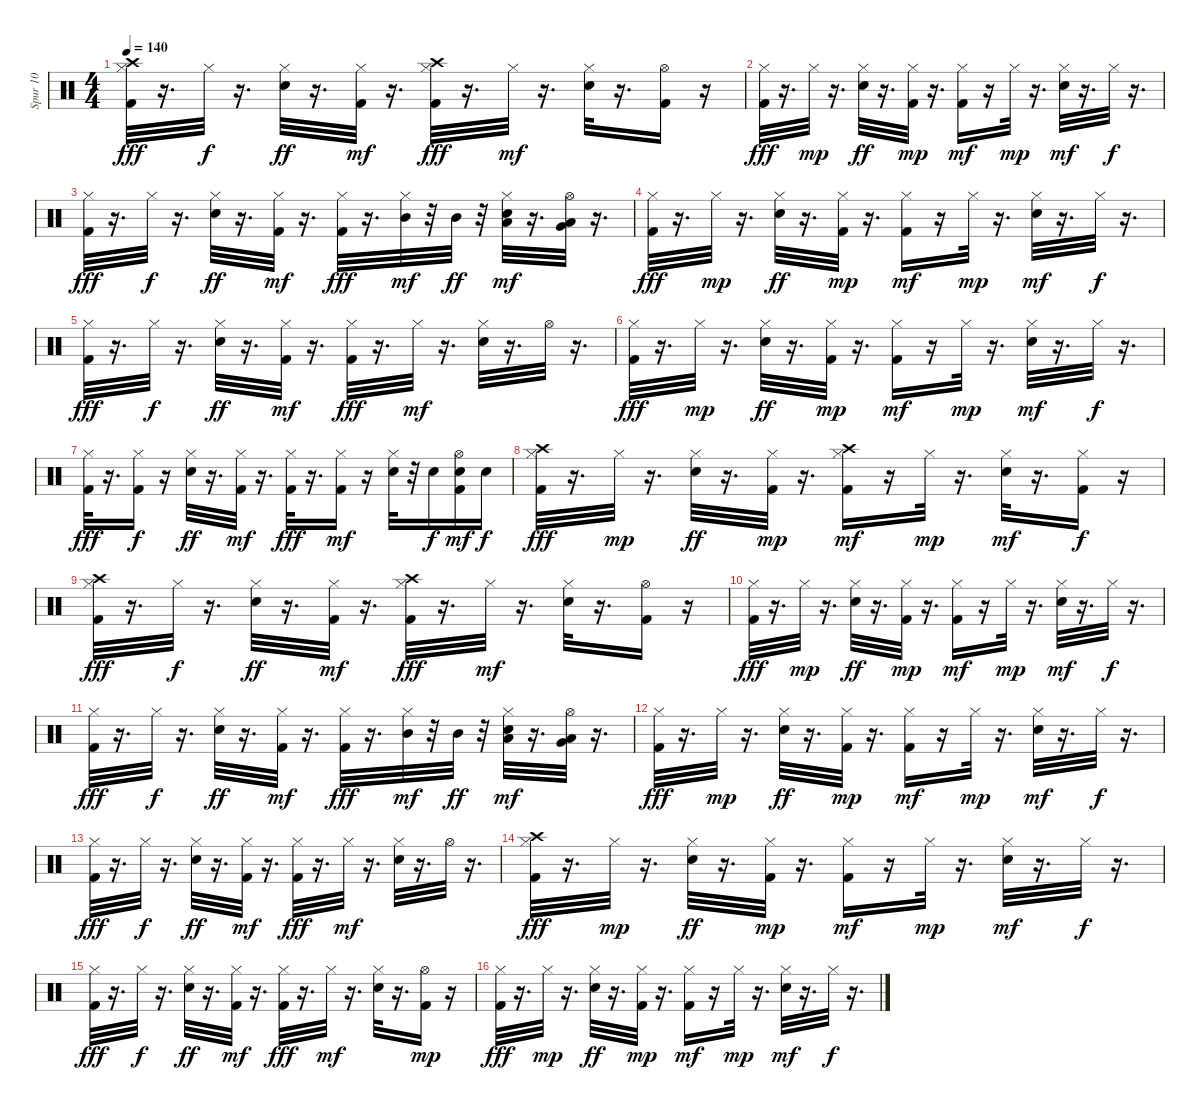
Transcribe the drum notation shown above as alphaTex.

\track ("Spur 10" "Spur 10") {instrument percussion}
\staff {score}
\articulation defaults
\ts (4 4)
\tempo 140
\clef neutral
\ks c
("Crash high (hit)" "Hi-Hat (closed)" "Kick (hit) 2").32{dy fff} r.16{d} "Hi-Hat (closed)".32{dy f} r.16{d} ("Hi-Hat (closed)" "Snare (hit) 2").32{dy ff} r.16{d} ("Kick (hit) 2" "Hi-Hat (closed)").32{dy mf} r.16{d} ("Crash high (hit)" "Hi-Hat (closed)" "Kick (hit) 2").32{dy fff} r.16{d} "Hi-Hat (closed)".32{dy mf} r.16{d} ("Snare (hit) 2" "Hi-Hat (closed)").32 r.16{d} ("Kick (hit) 2" "Hi-Hat (open)").16 r.16 |
("Hi-Hat (closed)" "Kick (hit) 2").32{dy fff} r.16{d} "Hi-Hat (closed)".32{dy mp} r.16{d} ("Hi-Hat (closed)" "Snare (hit) 2").32{dy ff} r.16{d} ("Kick (hit) 2" "Hi-Hat (closed)").32{dy mp} r.16{d} ("Kick (hit) 2" "Hi-Hat (closed)").16{dy mf} r.16 "Hi-Hat (closed)".32{dy mp} r.16{d} ("Snare (hit) 2" "Hi-Hat (closed)").32{dy mf} r.16{d} "Hi-Hat (closed)".32{dy f} r.16{d} |
("Hi-Hat (closed)" "Kick (hit) 2").32{dy fff} r.16{d} "Hi-Hat (closed)".32{dy f} r.16{d} ("Hi-Hat (closed)" "Snare (hit) 2").32{dy ff} r.16{d} ("Kick (hit) 2" "Hi-Hat (closed)").32{dy mf} r.16{d} ("Hi-Hat (closed)" "Kick (hit) 2").32{dy fff} r.16{d} ("Mid Tom (hit)" "Hi-Hat (closed)").32{dy mf} r.32 "Mid Tom (hit)".32{dy ff} r.32 ("Low Tom (hit)" "Snare (hit) 2" "Hi-Hat (closed)").32{dy mf} r.16{d} ("Low Tom (hit)" "Very Low Tom (hit)" "Hi-Hat (open)").32 r.16{d} |
("Hi-Hat (closed)" "Kick (hit) 2").32{dy fff} r.16{d} "Hi-Hat (closed)".32{dy mp} r.16{d} ("Hi-Hat (closed)" "Snare (hit) 2").32{dy ff} r.16{d} ("Kick (hit) 2" "Hi-Hat (closed)").32{dy mp} r.16{d} ("Kick (hit) 2" "Hi-Hat (closed)").16{dy mf} r.16 "Hi-Hat (closed)".32{dy mp} r.16{d} ("Snare (hit) 2" "Hi-Hat (closed)").32{dy mf} r.16{d} "Hi-Hat (closed)".32{dy f} r.16{d} |
("Hi-Hat (closed)" "Kick (hit) 2").32{dy fff} r.16{d} "Hi-Hat (closed)".32{dy f} r.16{d} ("Hi-Hat (closed)" "Snare (hit) 2").32{dy ff} r.16{d} ("Kick (hit) 2" "Hi-Hat (closed)").32{dy mf} r.16{d} ("Hi-Hat (closed)" "Kick (hit) 2").32{dy fff} r.16{d} "Hi-Hat (closed)".32{dy mf} r.16{d} ("Snare (hit) 2" "Hi-Hat (closed)").32 r.16{d} "Hi-Hat (open)".32 r.16{d} |
("Hi-Hat (closed)" "Kick (hit) 2").32{dy fff} r.16{d} "Hi-Hat (closed)".32{dy mp} r.16{d} ("Hi-Hat (closed)" "Snare (hit) 2").32{dy ff} r.16{d} ("Kick (hit) 2" "Hi-Hat (closed)").32{dy mp} r.16{d} ("Kick (hit) 2" "Hi-Hat (closed)").16{dy mf} r.16 "Hi-Hat (closed)".32{dy mp} r.16{d} ("Snare (hit) 2" "Hi-Hat (closed)").32{dy mf} r.16{d} "Hi-Hat (closed)".32{dy f} r.16{d} |
("Hi-Hat (closed)" "Kick (hit) 2").32{dy fff} r.16{d} ("Kick (hit) 2" "Hi-Hat (closed)").16{dy f} r.16 ("Hi-Hat (closed)" "Snare (hit) 2").32{dy ff} r.16{d} ("Kick (hit) 2" "Hi-Hat (closed)").32{dy mf} r.16{d} ("Hi-Hat (closed)" "Kick (hit) 2").32{dy fff} r.16{d} ("Kick (hit) 2" "Hi-Hat (closed)").16{dy mf} r.16 ("Snare (hit) 2" "Hi-Hat (closed)").32 r.32 "Snare (hit) 2".16{dy f} ("Snare (hit) 2" "Hi-Hat (open)" "Kick (hit) 2").16{dy mf} "Snare (hit) 2".16{dy f} |
("Crash high (hit)" "Hi-Hat (closed)" "Kick (hit) 2").32{dy fff} r.16{d} "Hi-Hat (closed)".32{dy mp} r.16{d} ("Hi-Hat (closed)" "Snare (hit) 2").32{dy ff} r.16{d} ("Kick (hit) 2" "Hi-Hat (closed)").32{dy mp} r.16{d} ("Crash high (hit)" "Kick (hit) 2" "Hi-Hat (closed)").16{dy mf} r.16 "Hi-Hat (closed)".32{dy mp} r.16{d} ("Snare (hit) 2" "Hi-Hat (closed)").32{dy mf} r.16{d} ("Kick (hit) 2" "Hi-Hat (closed)").16{dy f} r.16 |
("Crash high (hit)" "Hi-Hat (closed)" "Kick (hit) 2").32{dy fff} r.16{d} "Hi-Hat (closed)".32{dy f} r.16{d} ("Hi-Hat (closed)" "Snare (hit) 2").32{dy ff} r.16{d} ("Kick (hit) 2" "Hi-Hat (closed)").32{dy mf} r.16{d} ("Crash high (hit)" "Hi-Hat (closed)" "Kick (hit) 2").32{dy fff} r.16{d} "Hi-Hat (closed)".32{dy mf} r.16{d} ("Snare (hit) 2" "Hi-Hat (closed)").32 r.16{d} ("Kick (hit) 2" "Hi-Hat (open)").16 r.16 |
("Hi-Hat (closed)" "Kick (hit) 2").32{dy fff} r.16{d} "Hi-Hat (closed)".32{dy mp} r.16{d} ("Hi-Hat (closed)" "Snare (hit) 2").32{dy ff} r.16{d} ("Kick (hit) 2" "Hi-Hat (closed)").32{dy mp} r.16{d} ("Kick (hit) 2" "Hi-Hat (closed)").16{dy mf} r.16 "Hi-Hat (closed)".32{dy mp} r.16{d} ("Snare (hit) 2" "Hi-Hat (closed)").32{dy mf} r.16{d} "Hi-Hat (closed)".32{dy f} r.16{d} |
("Hi-Hat (closed)" "Kick (hit) 2").32{dy fff} r.16{d} "Hi-Hat (closed)".32{dy f} r.16{d} ("Hi-Hat (closed)" "Snare (hit) 2").32{dy ff} r.16{d} ("Kick (hit) 2" "Hi-Hat (closed)").32{dy mf} r.16{d} ("Hi-Hat (closed)" "Kick (hit) 2").32{dy fff} r.16{d} ("Mid Tom (hit)" "Hi-Hat (closed)").32{dy mf} r.32 "Mid Tom (hit)".32{dy ff} r.32 ("Low Tom (hit)" "Snare (hit) 2" "Hi-Hat (closed)").32{dy mf} r.16{d} ("Low Tom (hit)" "Very Low Tom (hit)" "Hi-Hat (open)").32 r.16{d} |
("Hi-Hat (closed)" "Kick (hit) 2").32{dy fff} r.16{d} "Hi-Hat (closed)".32{dy mp} r.16{d} ("Hi-Hat (closed)" "Snare (hit) 2").32{dy ff} r.16{d} ("Kick (hit) 2" "Hi-Hat (closed)").32{dy mp} r.16{d} ("Kick (hit) 2" "Hi-Hat (closed)").16{dy mf} r.16 "Hi-Hat (closed)".32{dy mp} r.16{d} ("Snare (hit) 2" "Hi-Hat (closed)").32{dy mf} r.16{d} "Hi-Hat (closed)".32{dy f} r.16{d} |
("Hi-Hat (closed)" "Kick (hit) 2").32{dy fff} r.16{d} "Hi-Hat (closed)".32{dy f} r.16{d} ("Hi-Hat (closed)" "Snare (hit) 2").32{dy ff} r.16{d} ("Kick (hit) 2" "Hi-Hat (closed)").32{dy mf} r.16{d} ("Hi-Hat (closed)" "Kick (hit) 2").32{dy fff} r.16{d} "Hi-Hat (closed)".32{dy mf} r.16{d} ("Snare (hit) 2" "Hi-Hat (closed)").32 r.16{d} "Hi-Hat (open)".32 r.16{d} |
("Crash high (hit)" "Hi-Hat (closed)" "Kick (hit) 2").32{dy fff} r.16{d} "Hi-Hat (closed)".32{dy mp} r.16{d} ("Hi-Hat (closed)" "Snare (hit) 2").32{dy ff} r.16{d} ("Kick (hit) 2" "Hi-Hat (closed)").32{dy mp} r.16{d} ("Kick (hit) 2" "Hi-Hat (closed)").16{dy mf} r.16 "Hi-Hat (closed)".32{dy mp} r.16{d} ("Snare (hit) 2" "Hi-Hat (closed)").32{dy mf} r.16{d} "Hi-Hat (closed)".32{dy f} r.16{d} |
("Hi-Hat (closed)" "Kick (hit) 2").32{dy fff} r.16{d} "Hi-Hat (closed)".32{dy f} r.16{d} ("Hi-Hat (closed)" "Snare (hit) 2").32{dy ff} r.16{d} ("Kick (hit) 2" "Hi-Hat (closed)").32{dy mf} r.16{d} ("Hi-Hat (closed)" "Kick (hit) 2").32{dy fff} r.16{d} "Hi-Hat (closed)".32{dy mf} r.16{d} ("Snare (hit) 2" "Hi-Hat (closed)").32 r.16{d} ("Hi-Hat (open)" "Kick (hit) 2").16{dy mp} r.16 |
("Hi-Hat (closed)" "Kick (hit) 2").32{dy fff} r.16{d} "Hi-Hat (closed)".32{dy mp} r.16{d} ("Hi-Hat (closed)" "Snare (hit) 2").32{dy ff} r.16{d} ("Kick (hit) 2" "Hi-Hat (closed)").32{dy mp} r.16{d} ("Kick (hit) 2" "Hi-Hat (closed)").16{dy mf} r.16 "Hi-Hat (closed)".32{dy mp} r.16{d} ("Snare (hit) 2" "Hi-Hat (closed)").32{dy mf} r.16{d} "Hi-Hat (closed)".32{dy f} r.16{d}
